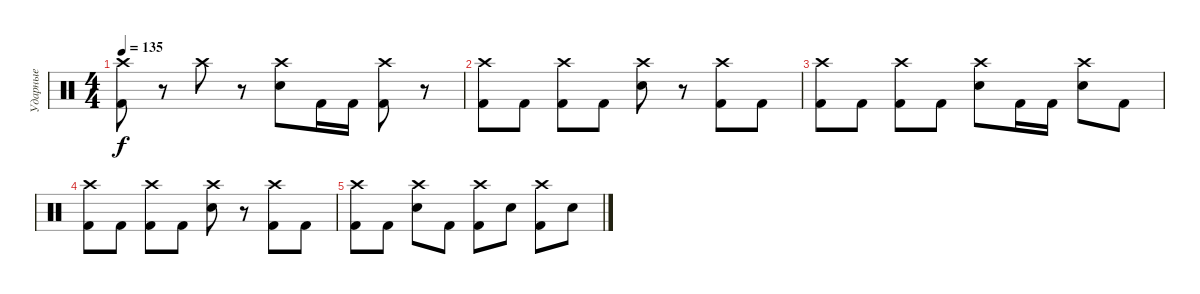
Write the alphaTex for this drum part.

\track ("Ударные" "Ударные") {instrument percussion}
\staff {score}
\articulation defaults
\ts (4 4)
\tempo 135
\clef neutral
\ks c
("Kick (hit) 2" "Crash high (hit)").8{dy f} r.8 "Crash high (hit)".8 r.8 ("Electric Snare (hit)" "Crash high (hit)").8 "Kick (hit) 2".16 "Kick (hit) 2".16 ("Kick (hit) 2" "Crash high (hit)").8 r.8 |
("Kick (hit) 2" "Crash high (hit)").8 "Kick (hit) 2".8 ("Kick (hit) 2" "Crash high (hit)").8 "Kick (hit) 2".8 ("Electric Snare (hit)" "Crash high (hit)").8 r.8 ("Kick (hit) 2" "Crash high (hit)").8 "Kick (hit) 2".8 |
("Kick (hit) 2" "Crash high (hit)").8 "Kick (hit) 2".8 ("Kick (hit) 2" "Crash high (hit)").8 "Kick (hit) 2".8 ("Electric Snare (hit)" "Crash high (hit)").8 "Kick (hit) 2".16 "Kick (hit) 2".16 ("Electric Snare (hit)" "Crash high (hit)").8 "Kick (hit) 2".8 |
("Kick (hit) 2" "Crash high (hit)").8 "Kick (hit) 2".8 ("Kick (hit) 2" "Crash high (hit)").8 "Kick (hit) 2".8 ("Electric Snare (hit)" "Crash high (hit)").8 r.8 ("Kick (hit) 2" "Crash high (hit)").8 "Kick (hit) 2".8 |
("Kick (hit) 2" "Crash high (hit)").8 "Kick (hit) 2".8 ("Electric Snare (hit)" "Crash high (hit)").8 "Kick (hit) 2".8 ("Kick (hit) 2" "Crash high (hit)").8 "Electric Snare (hit)".8 ("Kick (hit) 2" "Crash high (hit)").8 "Electric Snare (hit)".8
